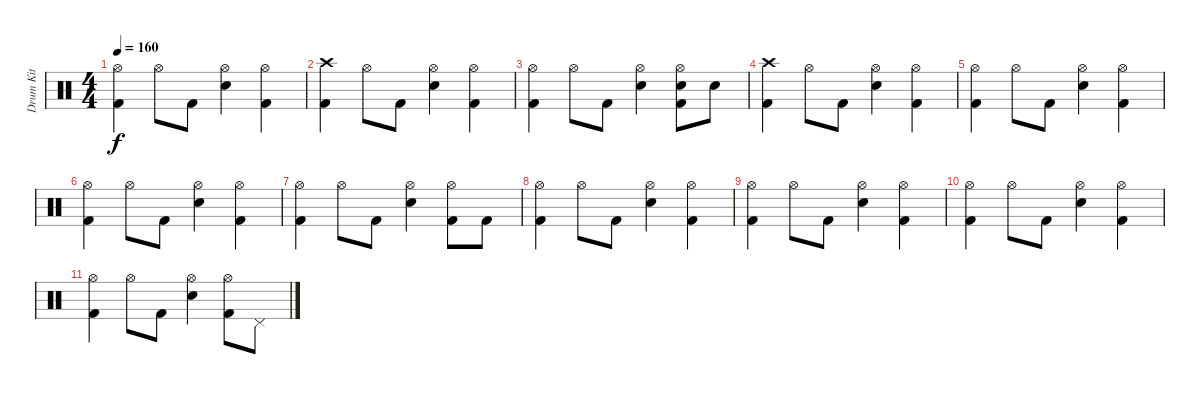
\track ("Drum Kit" "Drum Kit") {instrument percussion}
\staff {score}
\articulation defaults
\ts (4 4)
\tempo 160
\clef neutral
\ks c
("Hi-Hat (open)" "Kick (hit) 2").4{dy f} "Hi-Hat (open)".8 "Kick (hit) 2".8 ("Hi-Hat (open)" "Electric Snare (hit)").4 ("Hi-Hat (open)" "Kick (hit) 2").4 |
("Crash high (hit)" "Kick (hit) 2").4 "Hi-Hat (open)".8 "Kick (hit) 2".8 ("Hi-Hat (open)" "Electric Snare (hit)").4 ("Hi-Hat (open)" "Kick (hit) 2").4 |
("Hi-Hat (open)" "Kick (hit) 2").4 "Hi-Hat (open)".8 "Kick (hit) 2".8 ("Hi-Hat (open)" "Electric Snare (hit)").4 ("Hi-Hat (open)" "Electric Snare (hit)" "Kick (hit) 2").8 "Electric Snare (hit)".8 |
("Crash high (hit)" "Kick (hit) 2").4 "Hi-Hat (open)".8 "Kick (hit) 2".8 ("Hi-Hat (open)" "Electric Snare (hit)").4 ("Hi-Hat (open)" "Kick (hit) 2").4 |
("Hi-Hat (open)" "Kick (hit) 2").4 "Hi-Hat (open)".8 "Kick (hit) 2".8 ("Hi-Hat (open)" "Electric Snare (hit)").4 ("Hi-Hat (open)" "Kick (hit) 2").4 |
("Hi-Hat (open)" "Kick (hit) 2").4 "Hi-Hat (open)".8 "Kick (hit) 2".8 ("Hi-Hat (open)" "Electric Snare (hit)").4 ("Hi-Hat (open)" "Kick (hit) 2").4 |
("Hi-Hat (open)" "Kick (hit) 2").4 "Hi-Hat (open)".8 "Kick (hit) 2".8 ("Hi-Hat (open)" "Electric Snare (hit)").4 ("Hi-Hat (open)" "Kick (hit) 2").8 "Kick (hit) 2".8 |
("Hi-Hat (open)" "Kick (hit) 2").4 "Hi-Hat (open)".8 "Kick (hit) 2".8 ("Hi-Hat (open)" "Electric Snare (hit)").4 ("Hi-Hat (open)" "Kick (hit) 2").4 |
("Hi-Hat (open)" "Kick (hit) 2").4 "Hi-Hat (open)".8 "Kick (hit) 2".8 ("Hi-Hat (open)" "Electric Snare (hit)").4 ("Hi-Hat (open)" "Kick (hit) 2").4 |
("Hi-Hat (open)" "Kick (hit) 2").4 "Hi-Hat (open)".8 "Kick (hit) 2".8 ("Hi-Hat (open)" "Electric Snare (hit)").4 ("Hi-Hat (open)" "Kick (hit) 2").4 |
("Hi-Hat (open)" "Kick (hit) 2").4 "Hi-Hat (open)".8 "Kick (hit) 2".8 ("Hi-Hat (open)" "Electric Snare (hit)").4 ("Hi-Hat (open)" "Kick (hit) 2").8 "Pedal Hi-Hat (hit)".8
